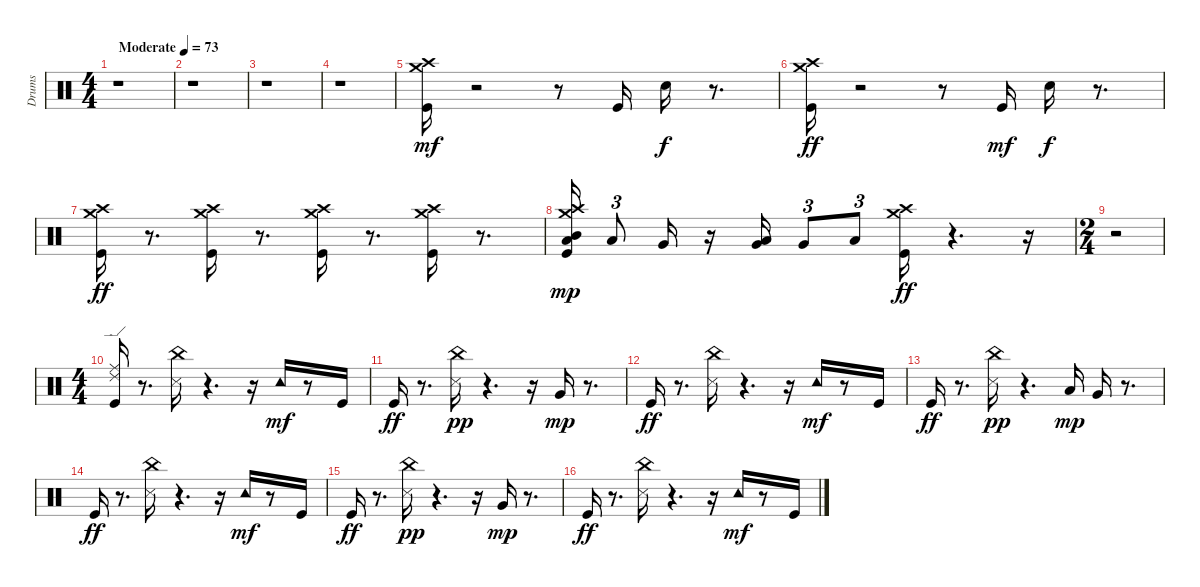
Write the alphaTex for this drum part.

\track ("Drums" "Drums") {instrument percussion}
\staff {score}
\articulation defaults
\ts (4 4)
\tempo (73 "Moderate")
\clef neutral
\ks c
r.1{dy mf} |
r.1 |
r.1 |
r.1 |
("Kick (hit)" "Crash high (hit)" "Crash medium (hit)").16 r.2 r.8 "Kick (hit)".16 "Snare (hit) 2".16{dy f} r.8{d} |
("Crash high (hit)" "Crash medium (hit)" "Kick (hit)").16{dy ff} r.2 r.8 "Kick (hit)".16{dy mf} "Snare (hit) 2".16{dy f} r.8{d} |
("Crash high (hit)" "Crash medium (hit)" "Kick (hit)").16{dy ff} r.8{d} ("Crash medium (hit)" "Crash high (hit)" "Kick (hit)").16 r.8{d} ("Crash medium (hit)" "Crash high (hit)" "Kick (hit)").16 r.8{d} ("Crash medium (hit)" "Crash high (hit)" "Kick (hit)").16 r.8{d} |
("Crash medium (hit)" "Crash high (hit)" "Low Tom (hit)" "Kick (hit)" "Mid Tom (hit)").16{dy mp} "Low Tom (hit)".8{tu (3 2)} "Very Low Tom (hit)".16 r.16 ("Very Low Tom (hit)" "Low Tom (hit)").16 "Very Low Tom (hit)".8{tu (3 2)} "Low Floor Tom (hit)".8{tu (3 2)} ("Crash medium (hit)" "Crash high (hit)" "Kick (hit)").16{dy ff} r.4{d} r.16 |
\ts (2 4)
r.2 |
\ts (4 4)
("Ride (middle)" "Ride (edge) 2" "Kick (hit)").16 r.8{d} ("China (hit)" "Snare (side stick) 3").16 r.4{d} r.16 "Tambourine (hit)".16{dy mf} r.8 "Kick (hit)".16 |
"Kick (hit)".16{dy ff} r.8{d} ("Snare (side stick) 3" "China (hit)").16{dy pp} r.4{d} r.16 "Very Low Tom (hit)".16{dy mp} r.8{d} |
"Kick (hit)".16{dy ff} r.8{d} ("China (hit)" "Snare (side stick) 3").16 r.4{d} r.16 "Tambourine (hit)".16{dy mf} r.8 "Kick (hit)".16 |
"Kick (hit)".16{dy ff} r.8{d} ("Snare (side stick) 3" "China (hit)").16{dy pp} r.4{d} "Low Tom (hit)".16{dy mp} "Very Low Tom (hit)".16 r.8{d} |
"Kick (hit)".16{dy ff} r.8{d} ("China (hit)" "Snare (side stick) 3").16 r.4{d} r.16 "Tambourine (hit)".16{dy mf} r.8 "Kick (hit)".16 |
"Kick (hit)".16{dy ff} r.8{d} ("Snare (side stick) 3" "China (hit)").16{dy pp} r.4{d} r.16 "Very Low Tom (hit)".16{dy mp} r.8{d} |
"Kick (hit)".16{dy ff} r.8{d} ("China (hit)" "Snare (side stick) 3").16 r.4{d} r.16 "Tambourine (hit)".16{dy mf} r.8 "Kick (hit)".16
